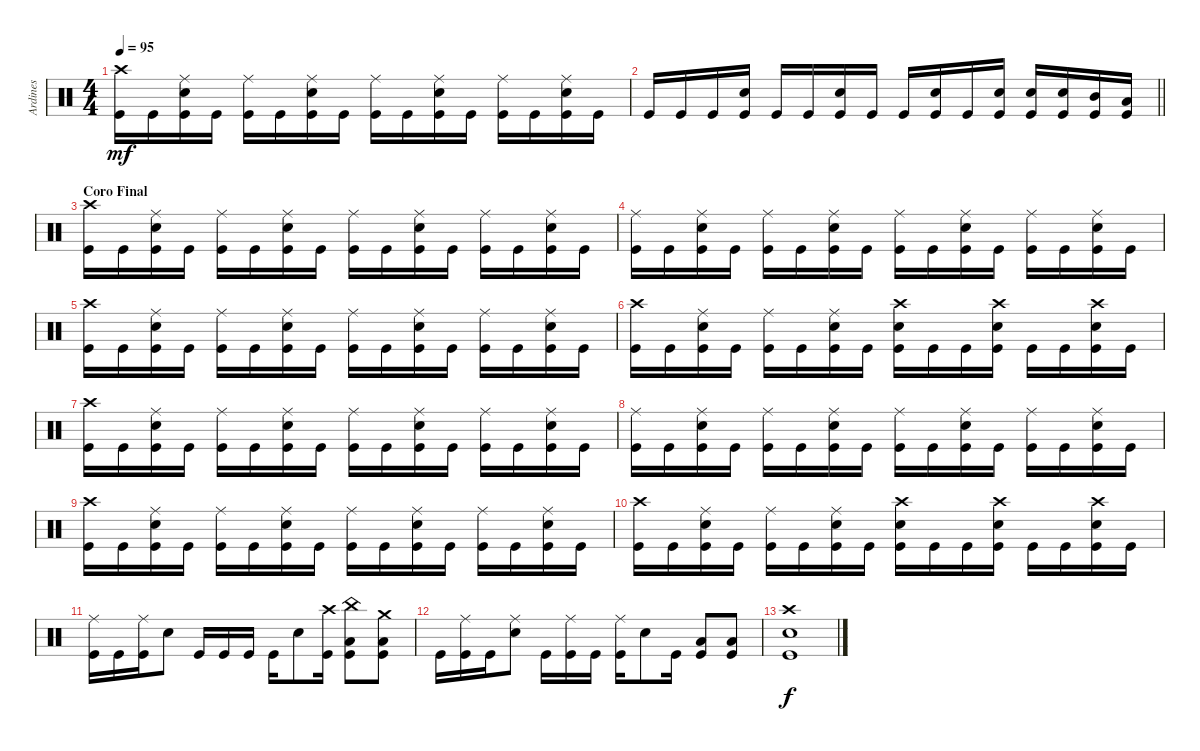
\track ("Ardines" "Ardines") {instrument percussion}
\staff {score}
\articulation defaults
\ts (4 4)
\tempo 95
\clef neutral
\ks c
("Crash high (hit)" "Kick (hit)").16{dy mf} "Kick (hit)".16 ("Ride (middle)" "Snare (hit) 2" "Kick (hit)").16 "Kick (hit)".16 ("Ride (middle)" "Kick (hit)").16 "Kick (hit)".16 ("Ride (middle)" "Snare (hit) 2" "Kick (hit)").16 "Kick (hit)".16 ("Ride (middle)" "Kick (hit)").16 "Kick (hit)".16 ("Ride (middle)" "Snare (hit) 2" "Kick (hit)").16 "Kick (hit)".16 ("Ride (middle)" "Kick (hit)").16 "Kick (hit)".16 ("Ride (middle)" "Snare (hit) 2" "Kick (hit)").16 "Kick (hit)".16 |
\barLineRight lightlight "Kick (hit)".16 "Kick (hit)".16 "Kick (hit)".16
("Snare (hit) 2" "Kick (hit)").16 "Kick (hit)".16 "Kick (hit)".16 ("Snare (hit) 2" "Kick (hit)").16 "Kick (hit)".16 "Kick (hit)".16 ("Snare (hit) 2" "Kick (hit)").16 "Kick (hit)".16 ("Snare (hit) 2" "Kick (hit)").16 ("Snare (hit) 2" "Kick (hit)").16 ("Snare (hit) 2" "Kick (hit)").16 ("Mid Tom (hit)" "Kick (hit)").16 ("Low Tom (hit)" "Kick (hit)").16 |
\section ("" "Coro Final")
("Crash high (hit)" "Kick (hit)").16 "Kick (hit)".16 ("Ride (middle)" "Snare (hit) 2" "Kick (hit)").16 "Kick (hit)".16 ("Ride (middle)" "Kick (hit)").16 "Kick (hit)".16 ("Ride (middle)" "Snare (hit) 2" "Kick (hit)").16 "Kick (hit)".16 ("Ride (middle)" "Kick (hit)").16 "Kick (hit)".16 ("Ride (middle)" "Snare (hit) 2" "Kick (hit)").16 "Kick (hit)".16 ("Ride (middle)" "Kick (hit)").16 "Kick (hit)".16 ("Ride (middle)" "Snare (hit) 2" "Kick (hit)").16 "Kick (hit)".16 |
("Ride (middle)" "Kick (hit)").16 "Kick (hit)".16 ("Ride (middle)" "Snare (hit) 2" "Kick (hit)").16 "Kick (hit)".16 ("Ride (middle)" "Kick (hit)").16 "Kick (hit)".16 ("Ride (middle)" "Snare (hit) 2" "Kick (hit)").16 "Kick (hit)".16 ("Ride (middle)" "Kick (hit)").16 "Kick (hit)".16 ("Ride (middle)" "Snare (hit) 2" "Kick (hit)").16 "Kick (hit)".16 ("Ride (middle)" "Kick (hit)").16 "Kick (hit)".16 ("Ride (middle)" "Snare (hit) 2" "Kick (hit)").16 "Kick (hit)".16 |
("Crash high (hit)" "Kick (hit)").16 "Kick (hit)".16 ("Ride (middle)" "Snare (hit) 2" "Kick (hit)").16 "Kick (hit)".16 ("Ride (middle)" "Kick (hit)").16 "Kick (hit)".16 ("Ride (middle)" "Snare (hit) 2" "Kick (hit)").16 "Kick (hit)".16 ("Ride (middle)" "Kick (hit)").16 "Kick (hit)".16 ("Ride (middle)" "Snare (hit) 2" "Kick (hit)").16 "Kick (hit)".16 ("Ride (middle)" "Kick (hit)").16 "Kick (hit)".16 ("Ride (middle)" "Snare (hit) 2" "Kick (hit)").16 "Kick (hit)".16 |
("Crash high (hit)" "Kick (hit)").16 "Kick (hit)".16 ("Ride (middle)" "Snare (hit) 2" "Kick (hit)").16 "Kick (hit)".16 ("Ride (middle)" "Kick (hit)").16 "Kick (hit)".16 ("Ride (middle)" "Snare (hit) 2" "Kick (hit)").16 "Kick (hit)".16 ("Crash high (hit)" "Snare (hit) 2" "Kick (hit)").16 "Kick (hit)".16 "Kick (hit)".16 ("Crash high (hit)" "Snare (hit) 2" "Kick (hit)").16 "Kick (hit)".16 "Kick (hit)".16 ("Crash high (hit)" "Snare (hit) 2" "Kick (hit)").16 "Kick (hit)".16 |
("Crash high (hit)" "Kick (hit)").16 "Kick (hit)".16 ("Ride (middle)" "Snare (hit) 2" "Kick (hit)").16 "Kick (hit)".16 ("Ride (middle)" "Kick (hit)").16 "Kick (hit)".16 ("Ride (middle)" "Snare (hit) 2" "Kick (hit)").16 "Kick (hit)".16 ("Ride (middle)" "Kick (hit)").16 "Kick (hit)".16 ("Ride (middle)" "Snare (hit) 2" "Kick (hit)").16 "Kick (hit)".16 ("Ride (middle)" "Kick (hit)").16 "Kick (hit)".16 ("Ride (middle)" "Snare (hit) 2" "Kick (hit)").16 "Kick (hit)".16 |
("Ride (middle)" "Kick (hit)").16 "Kick (hit)".16 ("Ride (middle)" "Snare (hit) 2" "Kick (hit)").16 "Kick (hit)".16 ("Ride (middle)" "Kick (hit)").16 "Kick (hit)".16 ("Ride (middle)" "Snare (hit) 2" "Kick (hit)").16 "Kick (hit)".16 ("Ride (middle)" "Kick (hit)").16 "Kick (hit)".16 ("Ride (middle)" "Snare (hit) 2" "Kick (hit)").16 "Kick (hit)".16 ("Ride (middle)" "Kick (hit)").16 "Kick (hit)".16 ("Ride (middle)" "Snare (hit) 2" "Kick (hit)").16 "Kick (hit)".16 |
("Crash high (hit)" "Kick (hit)").16 "Kick (hit)".16 ("Ride (middle)" "Snare (hit) 2" "Kick (hit)").16 "Kick (hit)".16 ("Ride (middle)" "Kick (hit)").16 "Kick (hit)".16 ("Ride (middle)" "Snare (hit) 2" "Kick (hit)").16 "Kick (hit)".16 ("Ride (middle)" "Kick (hit)").16 "Kick (hit)".16 ("Ride (middle)" "Snare (hit) 2" "Kick (hit)").16 "Kick (hit)".16 ("Ride (middle)" "Kick (hit)").16 "Kick (hit)".16 ("Ride (middle)" "Snare (hit) 2" "Kick (hit)").16 "Kick (hit)".16 |
("Crash high (hit)" "Kick (hit)").16 "Kick (hit)".16 ("Ride (middle)" "Snare (hit) 2" "Kick (hit)").16 "Kick (hit)".16 ("Ride (middle)" "Kick (hit)").16 "Kick (hit)".16 ("Ride (middle)" "Snare (hit) 2" "Kick (hit)").16 "Kick (hit)".16 ("Crash high (hit)" "Snare (hit) 2" "Kick (hit)").16 "Kick (hit)".16 "Kick (hit)".16 ("Crash high (hit)" "Snare (hit) 2" "Kick (hit)").16 "Kick (hit)".16 "Kick (hit)".16 ("Crash high (hit)" "Snare (hit) 2" "Kick (hit)").16 "Kick (hit)".16 |
("Ride (middle)" "Kick (hit)").16 "Kick (hit)".16 ("Ride (middle)" "Kick (hit)").16 "Snare (hit) 2".8 "Kick (hit)".16 "Kick (hit)".16 "Kick (hit)".16 "Kick (hit)".16 "Snare (hit) 2".8 ("Crash high (hit)" "Kick (hit)").16 ("China (hit)" "Low Tom (hit)" "Kick (hit)").8 ("Crash medium (hit)" "Low Tom (hit)" "Kick (hit)").8 |
"Kick (hit)".16 ("Ride (middle)" "Kick (hit)").16 "Kick (hit)".16 ("Ride (middle)" "Snare (hit) 2").8 "Kick (hit)".16 ("Ride (middle)" "Kick (hit)").16 "Kick (hit)".16 ("Ride (middle)" "Kick (hit)").16 "Snare (hit) 2".8 "Kick (hit)".16 ("Low Tom (hit)" "Kick (hit)").8 ("Low Tom (hit)" "Kick (hit)").8 |
("Crash high (hit)" "Snare (hit) 2" "Kick (hit)").1{dy f}
